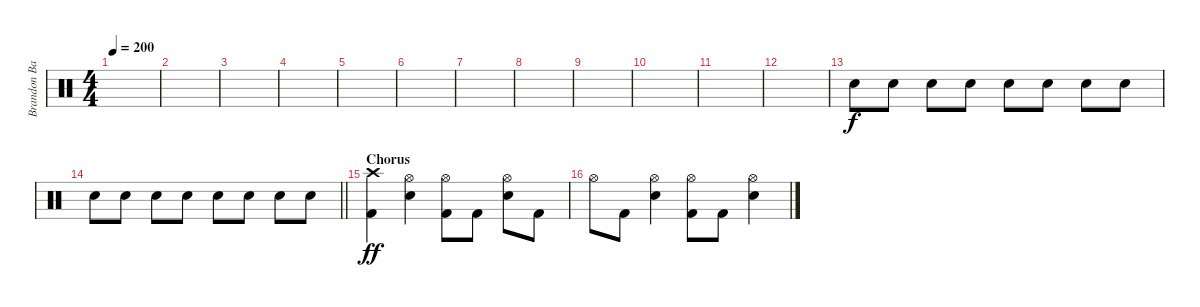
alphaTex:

\track ("Brandon Barnes - Drums" "Brandon Ba") {instrument percussion}
\staff {score}
\articulation defaults
\ts (4 4)
\tempo 200
\clef neutral
\ks c
|
|
|
|
|
|
|
|
|
|
|
|
"Snare (hit) 2".8 "Snare (hit) 2".8 "Snare (hit) 2".8 "Snare (hit) 2".8 "Snare (hit) 2".8 "Snare (hit) 2".8 "Snare (hit) 2".8 "Snare (hit) 2".8 |
\barLineRight lightlight "Snare (hit) 2".8 "Snare (hit) 2".8 "Snare (hit) 2".8 "Snare (hit) 2".8 "Snare (hit) 2".8 "Snare (hit) 2".8 "Snare (hit) 2".8 "Snare (hit) 2".8
|
\section ("" "Chorus")
("Kick (hit) 2" "Crash high (hit)").4{dy ff} ("Snare (hit) 2" "Hi-Hat (open)").4 ("Kick (hit) 2" "Hi-Hat (open)").8 "Kick (hit) 2".8 ("Snare (hit) 2" "Hi-Hat (open)").8 "Kick (hit) 2".8 |
"Hi-Hat (open)".8 "Kick (hit) 2".8 ("Snare (hit) 2" "Hi-Hat (open)").4 ("Kick (hit) 2" "Hi-Hat (open)").8 "Kick (hit) 2".8 ("Snare (hit) 2" "Hi-Hat (open)").4
